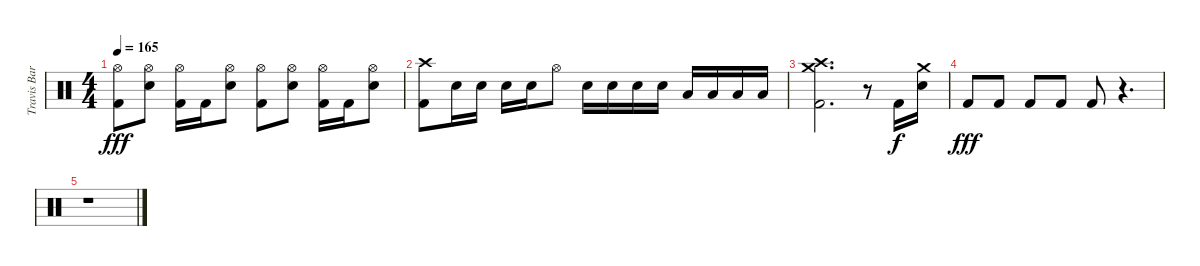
\track ("Travis Barker - Drums" "Travis Bar") {instrument percussion}
\staff {score}
\articulation defaults
\ts (4 4)
\tempo 165
\clef neutral
\ks c
("Hi-Hat (open)" "Kick (hit) 2").8{dy fff} ("Hi-Hat (open)" "Snare (hit) 2").8 ("Hi-Hat (open)" "Kick (hit) 2").16 "Kick (hit) 2".16 ("Hi-Hat (open)" "Snare (hit) 2").8 ("Hi-Hat (open)" "Kick (hit) 2").8 ("Hi-Hat (open)" "Snare (hit) 2").8 ("Hi-Hat (open)" "Kick (hit) 2").16 "Kick (hit) 2".16 ("Hi-Hat (open)" "Snare (hit) 2").8 |
("Crash high (hit)" "Kick (hit) 2").8 "Snare (hit) 2".16 "Snare (hit) 2".16 "Snare (hit) 2".16 "Snare (hit) 2".16 "Hi-Hat (open)".8 "Snare (hit) 2".16 "Snare (hit) 2".16 "Snare (hit) 2".16 "Snare (hit) 2".16 "Low Tom (hit)".16 "Low Tom (hit)".16 "Low Tom (hit)".16 "Low Tom (hit)".16 |
("Crash high (hit)" "Crash medium (hit)" "Kick (hit) 2").2{d} r.8 "Kick (hit) 2".16{dy f} ("Crash medium (hit)" "Snare (hit) 2").16 |
"Kick (hit) 2".8{dy fff} "Kick (hit) 2".8 "Kick (hit) 2".8 "Kick (hit) 2".8 "Kick (hit) 2".8 r.4{d} |
r.1
